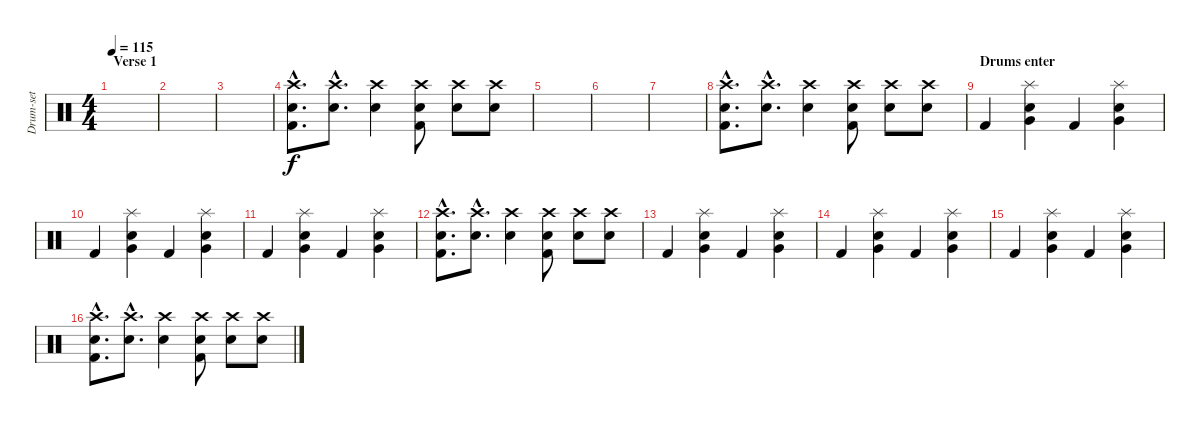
\track ("Drum-set" "Drum-set") {instrument percussion}
\staff {score}
\articulation defaults
\ts (4 4)
\section ("" "Verse 1")
\tempo 115
\clef neutral
\ks c
|
|
|
("Crash high (hit)"{hac} "Electric Snare (hit)"{hac} "Kick (hit) 2"{hac}).8{d} ("Crash high (hit)"{hac} "Electric Snare (hit)"{hac}).8{d} ("Crash high (hit)" "Electric Snare (hit)").4 ("Crash high (hit)" "Electric Snare (hit)" "Kick (hit) 2").8 ("Crash high (hit)" "Electric Snare (hit)").8 ("Crash high (hit)" "Electric Snare (hit)").8 |
|
|
|
("Crash high (hit)"{hac} "Electric Snare (hit)"{hac} "Kick (hit) 2"{hac}).8{d} ("Crash high (hit)"{hac} "Electric Snare (hit)"{hac}).8{d} ("Crash high (hit)" "Electric Snare (hit)").4 ("Crash high (hit)" "Electric Snare (hit)" "Kick (hit) 2").8 ("Crash high (hit)" "Electric Snare (hit)").8 ("Crash high (hit)" "Electric Snare (hit)").8 |
\section ("" "Drums enter")
"Kick (hit) 2".4 ("Very Low Tom (hit)" "Snare (hit) 2" "Splash (hit)").4 "Kick (hit) 2".4 ("Very Low Tom (hit)" "Snare (hit) 2" "Splash (hit)").4 |
"Kick (hit) 2".4 ("Very Low Tom (hit)" "Snare (hit) 2" "Splash (hit)").4 "Kick (hit) 2".4 ("Very Low Tom (hit)" "Snare (hit) 2" "Splash (hit)").4 |
"Kick (hit) 2".4 ("Very Low Tom (hit)" "Snare (hit) 2" "Splash (hit)").4 "Kick (hit) 2".4 ("Very Low Tom (hit)" "Snare (hit) 2" "Splash (hit)").4 |
("Crash high (hit)"{hac} "Electric Snare (hit)"{hac} "Kick (hit) 2"{hac}).8{d} ("Crash high (hit)"{hac} "Electric Snare (hit)"{hac}).8{d} ("Crash high (hit)" "Electric Snare (hit)").4 ("Crash high (hit)" "Electric Snare (hit)" "Kick (hit) 2").8 ("Crash high (hit)" "Electric Snare (hit)").8 ("Crash high (hit)" "Electric Snare (hit)").8 |
"Kick (hit) 2".4 ("Very Low Tom (hit)" "Snare (hit) 2" "Splash (hit)").4 "Kick (hit) 2".4 ("Very Low Tom (hit)" "Snare (hit) 2" "Splash (hit)").4 |
"Kick (hit) 2".4 ("Very Low Tom (hit)" "Snare (hit) 2" "Splash (hit)").4 "Kick (hit) 2".4 ("Very Low Tom (hit)" "Snare (hit) 2" "Splash (hit)").4 |
"Kick (hit) 2".4 ("Very Low Tom (hit)" "Snare (hit) 2" "Splash (hit)").4 "Kick (hit) 2".4 ("Very Low Tom (hit)" "Snare (hit) 2" "Splash (hit)").4 |
("Crash high (hit)"{hac} "Electric Snare (hit)"{hac} "Kick (hit) 2"{hac}).8{d} ("Crash high (hit)"{hac} "Electric Snare (hit)"{hac}).8{d} ("Crash high (hit)" "Electric Snare (hit)").4 ("Crash high (hit)" "Electric Snare (hit)" "Kick (hit) 2").8 ("Crash high (hit)" "Electric Snare (hit)").8 ("Crash high (hit)" "Electric Snare (hit)").8
